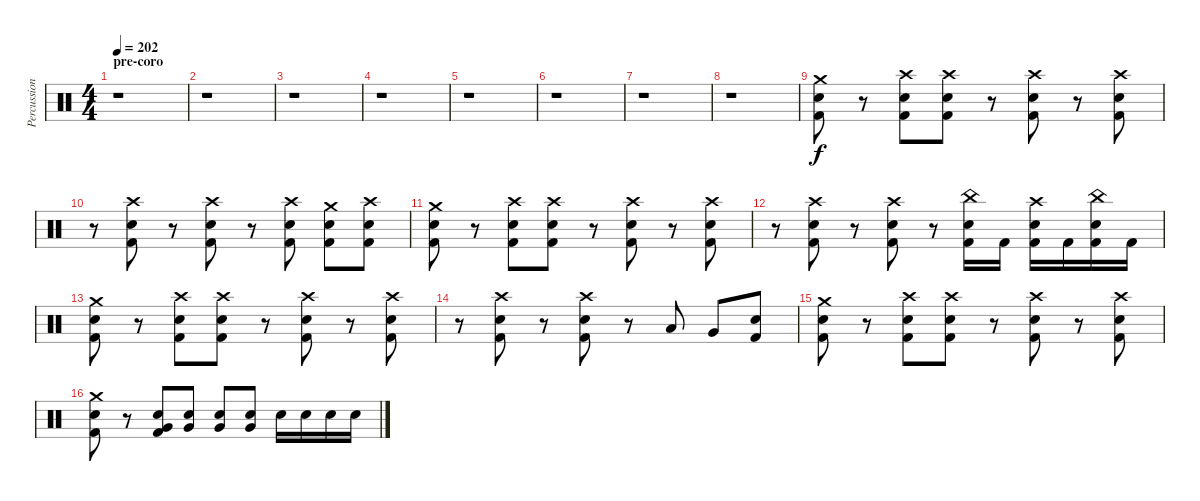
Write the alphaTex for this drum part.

\track ("Percussion" "Percussion") {instrument percussion}
\staff {score}
\articulation defaults
\ts (4 4)
\section ("" "pre-coro")
\tempo 202
\clef neutral
\ks c
r.1{dy f} |
r.1 |
r.1 |
r.1 |
r.1 |
r.1 |
r.1 |
r.1 |
("Crash medium (hit)" "Electric Snare (hit)" "Kick (hit) 2").8 r.8 ("Crash high (hit)" "Electric Snare (hit)" "Kick (hit) 2").8 ("Crash high (hit)" "Electric Snare (hit)" "Kick (hit) 2").8 r.8 ("Crash high (hit)" "Electric Snare (hit)" "Kick (hit) 2").8 r.8 ("Crash high (hit)" "Electric Snare (hit)" "Kick (hit) 2").8 |
r.8 ("Crash high (hit)" "Electric Snare (hit)" "Kick (hit) 2").8 r.8 ("Crash high (hit)" "Electric Snare (hit)" "Kick (hit) 2").8 r.8 ("Crash high (hit)" "Electric Snare (hit)" "Kick (hit) 2").8 ("Crash medium (hit)" "Electric Snare (hit)" "Kick (hit) 2").8 ("Crash high (hit)" "Electric Snare (hit)" "Kick (hit) 2").8 |
("Crash medium (hit)" "Electric Snare (hit)" "Kick (hit) 2").8 r.8 ("Crash high (hit)" "Electric Snare (hit)" "Kick (hit) 2").8 ("Crash high (hit)" "Electric Snare (hit)" "Kick (hit) 2").8 r.8 ("Crash high (hit)" "Electric Snare (hit)" "Kick (hit) 2").8 r.8 ("Crash high (hit)" "Electric Snare (hit)" "Kick (hit) 2").8 |
r.8 ("Crash high (hit)" "Electric Snare (hit)" "Kick (hit) 2").8 r.8 ("Crash high (hit)" "Electric Snare (hit)" "Kick (hit) 2").8 r.8 ("China (hit)" "Electric Snare (hit)" "Kick (hit) 2").16 "Kick (hit) 2".16 ("Crash high (hit)" "Electric Snare (hit)" "Kick (hit) 2").16 "Kick (hit) 2".16 ("China (hit)" "Electric Snare (hit)" "Kick (hit) 2").16 "Kick (hit) 2".16 |
("Crash medium (hit)" "Electric Snare (hit)" "Kick (hit) 2").8 r.8 ("Crash high (hit)" "Electric Snare (hit)" "Kick (hit) 2").8 ("Crash high (hit)" "Electric Snare (hit)" "Kick (hit) 2").8 r.8 ("Crash high (hit)" "Electric Snare (hit)" "Kick (hit) 2").8 r.8 ("Crash high (hit)" "Electric Snare (hit)" "Kick (hit) 2").8 |
r.8 ("Crash high (hit)" "Electric Snare (hit)" "Kick (hit) 2").8 r.8 ("Crash high (hit)" "Electric Snare (hit)" "Kick (hit) 2").8 r.8 "Low Tom (hit)".8 "Very Low Tom (hit)".8 ("Electric Snare (hit)" "Kick (hit) 2").8 |
("Crash medium (hit)" "Electric Snare (hit)" "Kick (hit) 2").8 r.8 ("Crash high (hit)" "Electric Snare (hit)" "Kick (hit) 2").8 ("Crash high (hit)" "Electric Snare (hit)" "Kick (hit) 2").8 r.8 ("Crash high (hit)" "Electric Snare (hit)" "Kick (hit) 2").8 r.8 ("Crash high (hit)" "Electric Snare (hit)" "Kick (hit) 2").8 |
("Crash medium (hit)" "Electric Snare (hit)" "Kick (hit) 2").8 r.8 ("Very Low Tom (hit)" "Electric Snare (hit)" "Kick (hit) 2").8 ("Very Low Tom (hit)" "Electric Snare (hit)").8 ("Very Low Tom (hit)" "Electric Snare (hit)").8 ("Very Low Tom (hit)" "Electric Snare (hit)").8 "Electric Snare (hit)".16 "Electric Snare (hit)".16 "Electric Snare (hit)".16 "Electric Snare (hit)".16
